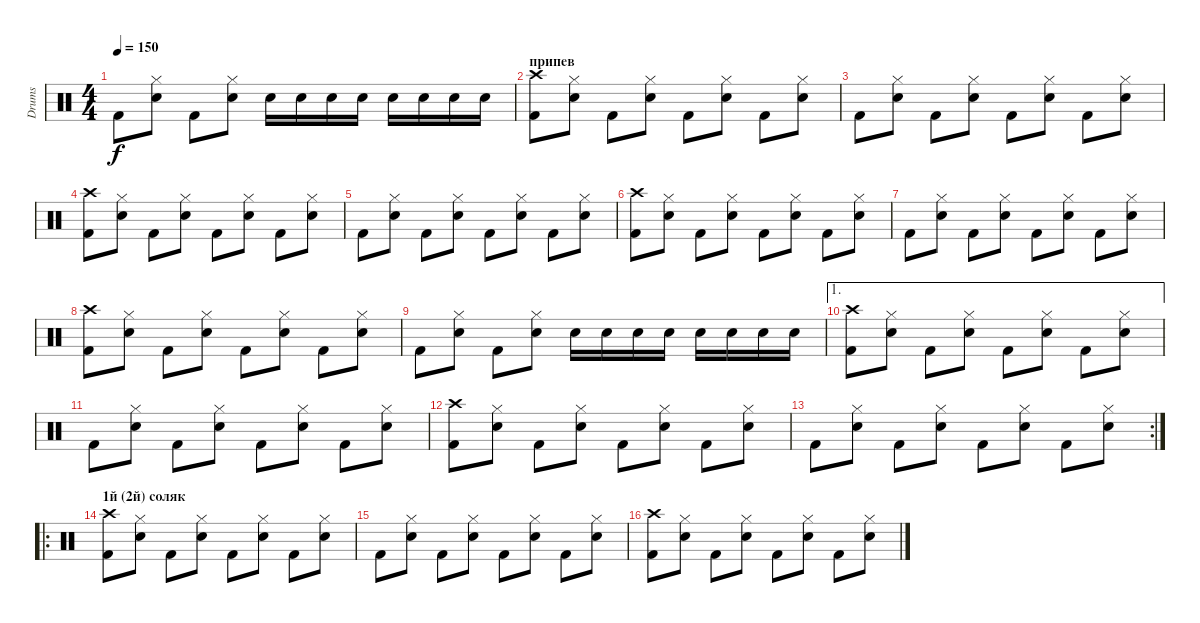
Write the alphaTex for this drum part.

\track ("Drums" "Drums") {instrument percussion}
\staff {score}
\articulation defaults
\ts (4 4)
\tempo 150
\clef neutral
\ks c "Kick (hit) 2".8{dy f}
("Hi-Hat (closed)" "Electric Snare (hit)").8 "Kick (hit) 2".8 ("Hi-Hat (closed)" "Electric Snare (hit)").8 "Snare (hit) 2".16 "Snare (hit) 2".16 "Snare (hit) 2".16 "Snare (hit) 2".16 "Snare (hit) 2".16 "Snare (hit) 2".16 "Snare (hit) 2".16 "Snare (hit) 2".16 |
\section ("" "припев")
("Crash high (hit)" "Kick (hit) 2").8 ("Hi-Hat (closed)" "Electric Snare (hit)").8 "Kick (hit) 2".8 ("Hi-Hat (closed)" "Electric Snare (hit)").8 "Kick (hit) 2".8 ("Hi-Hat (closed)" "Electric Snare (hit)").8 "Kick (hit) 2".8 ("Hi-Hat (closed)" "Electric Snare (hit)").8 |
"Kick (hit) 2".8 ("Hi-Hat (closed)" "Electric Snare (hit)").8 "Kick (hit) 2".8 ("Hi-Hat (closed)" "Electric Snare (hit)").8 "Kick (hit) 2".8 ("Hi-Hat (closed)" "Electric Snare (hit)").8 "Kick (hit) 2".8 ("Hi-Hat (closed)" "Electric Snare (hit)").8 |
("Crash high (hit)" "Kick (hit) 2").8 ("Hi-Hat (closed)" "Electric Snare (hit)").8 "Kick (hit) 2".8 ("Hi-Hat (closed)" "Electric Snare (hit)").8 "Kick (hit) 2".8 ("Hi-Hat (closed)" "Electric Snare (hit)").8 "Kick (hit) 2".8 ("Hi-Hat (closed)" "Electric Snare (hit)").8 |
"Kick (hit) 2".8 ("Hi-Hat (closed)" "Electric Snare (hit)").8 "Kick (hit) 2".8 ("Hi-Hat (closed)" "Electric Snare (hit)").8 "Kick (hit) 2".8 ("Hi-Hat (closed)" "Electric Snare (hit)").8 "Kick (hit) 2".8 ("Hi-Hat (closed)" "Electric Snare (hit)").8 |
("Crash high (hit)" "Kick (hit) 2").8 ("Hi-Hat (closed)" "Electric Snare (hit)").8 "Kick (hit) 2".8 ("Hi-Hat (closed)" "Electric Snare (hit)").8 "Kick (hit) 2".8 ("Hi-Hat (closed)" "Electric Snare (hit)").8 "Kick (hit) 2".8 ("Hi-Hat (closed)" "Electric Snare (hit)").8 |
"Kick (hit) 2".8 ("Hi-Hat (closed)" "Electric Snare (hit)").8 "Kick (hit) 2".8 ("Hi-Hat (closed)" "Electric Snare (hit)").8 "Kick (hit) 2".8 ("Hi-Hat (closed)" "Electric Snare (hit)").8 "Kick (hit) 2".8 ("Hi-Hat (closed)" "Electric Snare (hit)").8 |
("Crash high (hit)" "Kick (hit) 2").8 ("Hi-Hat (closed)" "Electric Snare (hit)").8 "Kick (hit) 2".8 ("Hi-Hat (closed)" "Electric Snare (hit)").8 "Kick (hit) 2".8 ("Hi-Hat (closed)" "Electric Snare (hit)").8 "Kick (hit) 2".8 ("Hi-Hat (closed)" "Electric Snare (hit)").8 |
"Kick (hit) 2".8 ("Hi-Hat (closed)" "Electric Snare (hit)").8 "Kick (hit) 2".8 ("Hi-Hat (closed)" "Electric Snare (hit)").8 "Snare (hit) 2".16 "Snare (hit) 2".16 "Snare (hit) 2".16 "Snare (hit) 2".16 "Snare (hit) 2".16 "Snare (hit) 2".16 "Snare (hit) 2".16 "Snare (hit) 2".16 |
\ae 1
("Crash high (hit)" "Kick (hit) 2").8 ("Hi-Hat (closed)" "Electric Snare (hit)").8 "Kick (hit) 2".8 ("Hi-Hat (closed)" "Electric Snare (hit)").8 "Kick (hit) 2".8 ("Hi-Hat (closed)" "Electric Snare (hit)").8 "Kick (hit) 2".8 ("Hi-Hat (closed)" "Electric Snare (hit)").8 |
"Kick (hit) 2".8 ("Hi-Hat (closed)" "Electric Snare (hit)").8 "Kick (hit) 2".8 ("Hi-Hat (closed)" "Electric Snare (hit)").8 "Kick (hit) 2".8 ("Hi-Hat (closed)" "Electric Snare (hit)").8 "Kick (hit) 2".8 ("Hi-Hat (closed)" "Electric Snare (hit)").8 |
("Crash high (hit)" "Kick (hit) 2").8 ("Hi-Hat (closed)" "Electric Snare (hit)").8 "Kick (hit) 2".8 ("Hi-Hat (closed)" "Electric Snare (hit)").8 "Kick (hit) 2".8 ("Hi-Hat (closed)" "Electric Snare (hit)").8 "Kick (hit) 2".8 ("Hi-Hat (closed)" "Electric Snare (hit)").8 |
\rc 2 "Kick (hit) 2".8
("Hi-Hat (closed)" "Electric Snare (hit)").8 "Kick (hit) 2".8 ("Hi-Hat (closed)" "Electric Snare (hit)").8 "Kick (hit) 2".8 ("Hi-Hat (closed)" "Electric Snare (hit)").8 "Kick (hit) 2".8 ("Hi-Hat (closed)" "Electric Snare (hit)").8 |
\ro
\section ("" "1й (2й) соляк")
("Crash high (hit)" "Kick (hit) 2").8 ("Hi-Hat (closed)" "Electric Snare (hit)").8 "Kick (hit) 2".8 ("Hi-Hat (closed)" "Electric Snare (hit)").8 "Kick (hit) 2".8 ("Hi-Hat (closed)" "Electric Snare (hit)").8 "Kick (hit) 2".8 ("Hi-Hat (closed)" "Electric Snare (hit)").8 |
"Kick (hit) 2".8 ("Hi-Hat (closed)" "Electric Snare (hit)").8 "Kick (hit) 2".8 ("Hi-Hat (closed)" "Electric Snare (hit)").8 "Kick (hit) 2".8 ("Hi-Hat (closed)" "Electric Snare (hit)").8 "Kick (hit) 2".8 ("Hi-Hat (closed)" "Electric Snare (hit)").8 |
("Crash high (hit)" "Kick (hit) 2").8 ("Hi-Hat (closed)" "Electric Snare (hit)").8 "Kick (hit) 2".8 ("Hi-Hat (closed)" "Electric Snare (hit)").8 "Kick (hit) 2".8 ("Hi-Hat (closed)" "Electric Snare (hit)").8 "Kick (hit) 2".8 ("Hi-Hat (closed)" "Electric Snare (hit)").8
